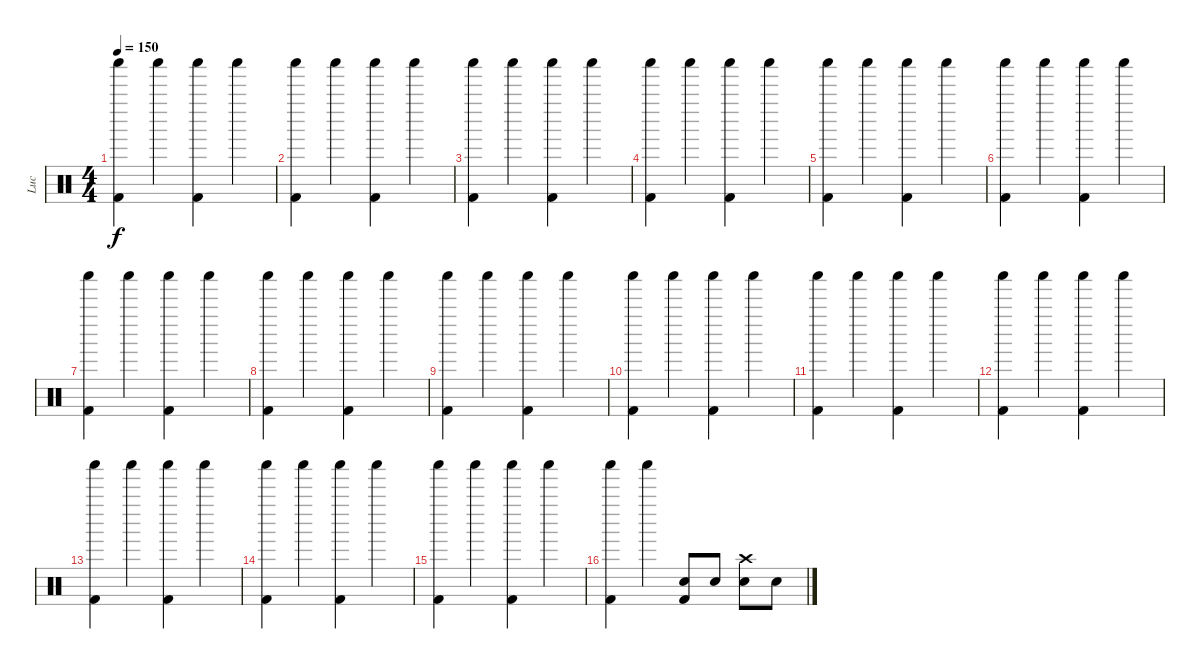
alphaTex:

\track ("Luc" "Luc") {instrument percussion}
\staff {score}
\articulation defaults
\ts (4 4)
\tempo 150
\clef neutral
\ks c
("Shaker (hit)" "Kick (hit) 2").4{dy f} "Shaker (hit)".4 ("Shaker (hit)" "Kick (hit) 2").4 "Shaker (hit)".4 |
("Shaker (hit)" "Kick (hit) 2").4 "Shaker (hit)".4 ("Shaker (hit)" "Kick (hit) 2").4 "Shaker (hit)".4 |
("Shaker (hit)" "Kick (hit) 2").4 "Shaker (hit)".4 ("Shaker (hit)" "Kick (hit) 2").4 "Shaker (hit)".4 |
("Shaker (hit)" "Kick (hit) 2").4 "Shaker (hit)".4 ("Shaker (hit)" "Kick (hit) 2").4 "Shaker (hit)".4 |
("Shaker (hit)" "Kick (hit) 2").4 "Shaker (hit)".4 ("Shaker (hit)" "Kick (hit) 2").4 "Shaker (hit)".4 |
("Shaker (hit)" "Kick (hit) 2").4 "Shaker (hit)".4 ("Shaker (hit)" "Kick (hit) 2").4 "Shaker (hit)".4 |
("Shaker (hit)" "Kick (hit) 2").4 "Shaker (hit)".4 ("Shaker (hit)" "Kick (hit) 2").4 "Shaker (hit)".4 |
("Shaker (hit)" "Kick (hit) 2").4 "Shaker (hit)".4 ("Shaker (hit)" "Kick (hit) 2").4 "Shaker (hit)".4 |
("Shaker (hit)" "Kick (hit) 2").4 "Shaker (hit)".4 ("Shaker (hit)" "Kick (hit) 2").4 "Shaker (hit)".4 |
("Shaker (hit)" "Kick (hit) 2").4 "Shaker (hit)".4 ("Shaker (hit)" "Kick (hit) 2").4 "Shaker (hit)".4 |
("Shaker (hit)" "Kick (hit) 2").4 "Shaker (hit)".4 ("Shaker (hit)" "Kick (hit) 2").4 "Shaker (hit)".4 |
("Shaker (hit)" "Kick (hit) 2").4 "Shaker (hit)".4 ("Shaker (hit)" "Kick (hit) 2").4 "Shaker (hit)".4 |
("Shaker (hit)" "Kick (hit) 2").4 "Shaker (hit)".4 ("Shaker (hit)" "Kick (hit) 2").4 "Shaker (hit)".4 |
("Shaker (hit)" "Kick (hit) 2").4 "Shaker (hit)".4 ("Shaker (hit)" "Kick (hit) 2").4 "Shaker (hit)".4 |
("Shaker (hit)" "Kick (hit) 2").4 "Shaker (hit)".4 ("Shaker (hit)" "Kick (hit) 2").4 "Shaker (hit)".4 |
("Shaker (hit)" "Kick (hit) 2").4 "Shaker (hit)".4 ("Snare (hit) 2" "Kick (hit) 2").8 "Snare (hit) 2".8 ("Crash high (hit)" "Snare (hit) 2").8 "Snare (hit) 2".8
